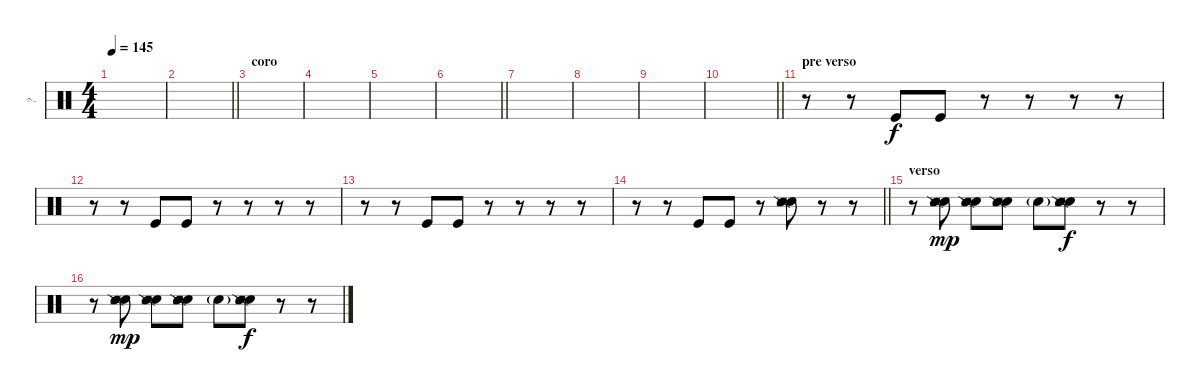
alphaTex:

\track ("?" "?") {instrument percussion}
\staff {score}
\articulation defaults
\ts (4 4)
\tempo 145
\clef neutral
\ks c
|
\barLineRight lightlight
|
\section ("" "coro")
|
|
|
\barLineRight lightlight
|
|
|
|
\barLineRight lightlight
|
\section ("" "pre verso")
r.8 r.8 "Kick (hit)".8 "Kick (hit)".8 r.8 r.8 r.8 r.8 |
r.8 r.8 "Kick (hit)".8 "Kick (hit)".8 r.8 r.8 r.8 r.8 |
r.8 r.8 "Kick (hit)".8 "Kick (hit)".8 r.8 r.8 r.8 r.8 |
\barLineRight lightlight
r.8 r.8 "Kick (hit)".8 "Kick (hit)".8 r.8 ("Snare (hit) 2" "Snare (side stick) 3" "Snare (side stick) 2").8 r.8 r.8 |
\section ("" "verso")
r.8 ("Snare (hit) 2" "Snare (side stick) 3" "Snare (side stick) 2").8{dy mp} ("Snare (hit) 2" "Snare (side stick) 3" "Snare (side stick) 2").8 ("Snare (hit) 2" "Snare (side stick) 3" "Snare (side stick) 2").8 "Snare (hit) 2"{g}.8 ("Snare (hit) 2" "Snare (side stick) 3" "Snare (side stick) 2").8{dy f} r.8 r.8 |
r.8 ("Snare (hit) 2" "Snare (side stick) 3" "Snare (side stick) 2").8{dy mp} ("Snare (hit) 2" "Snare (side stick) 3" "Snare (side stick) 2").8 ("Snare (hit) 2" "Snare (side stick) 3" "Snare (side stick) 2").8 "Snare (hit) 2"{g}.8 ("Snare (hit) 2" "Snare (side stick) 3" "Snare (side stick) 2").8{dy f} r.8 r.8
